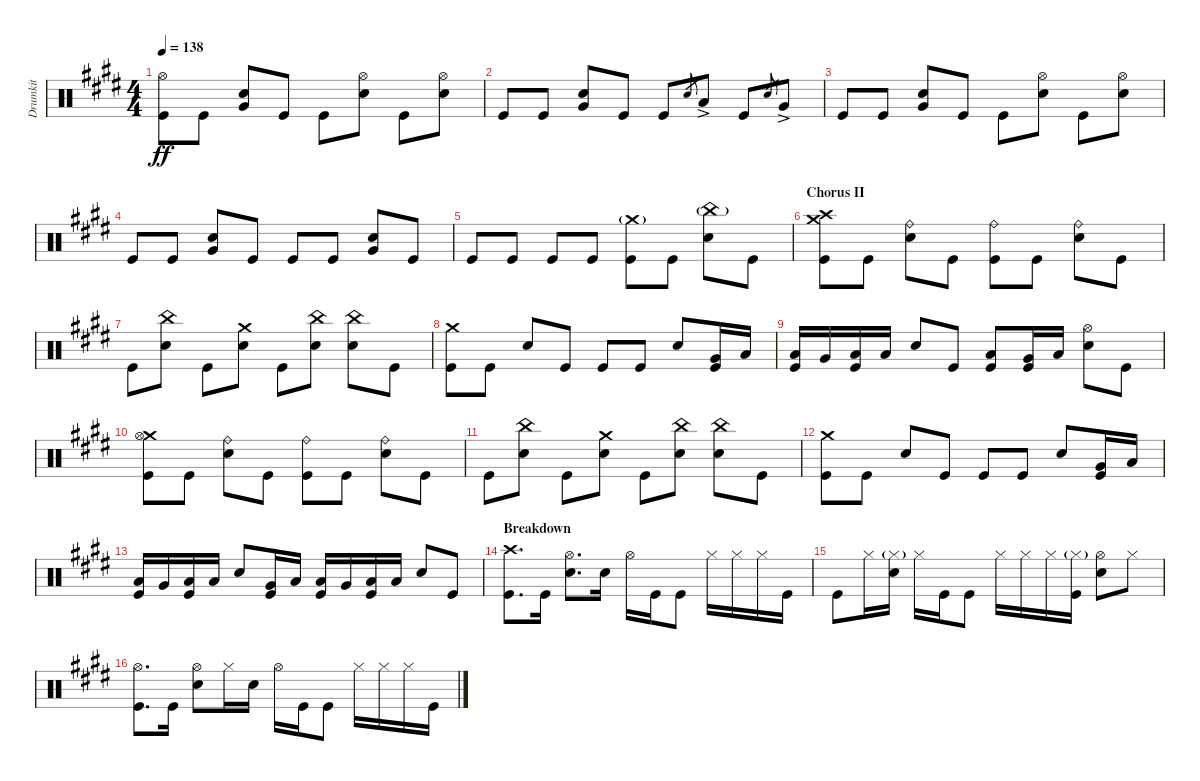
\track ("Drumkit" "Drumkit") {instrument percussion}
\staff {score}
\articulation defaults
\ts (4 4)
\tempo 138
\clef neutral
\ks c#minor
("Kick (hit)" "Hi-Hat (open)").8{dy ff} "Kick (hit)".8 ("Snare (hit) 2" "Very Low Tom (hit)").8 "Kick (hit)".8 "Kick (hit)".8 ("Snare (hit) 2" "Hi-Hat (open)").8 "Kick (hit)".8 ("Snare (hit) 2" "Hi-Hat (open)").8 |
"Kick (hit)".8 "Kick (hit)".8 ("Snare (hit) 2" "Very Low Tom (hit)").8 "Kick (hit)".8 "Kick (hit)".8 "Snare (hit)".8{gr} "Low Tom (hit)"{ac}.8 "Kick (hit)".8 "Snare (hit)".8{gr} "Very Low Tom (hit)"{ac}.8 |
"Kick (hit)".8 "Kick (hit)".8 ("Snare (hit) 2" "Very Low Tom (hit)").8 "Kick (hit)".8 "Kick (hit)".8 ("Snare (hit) 2" "Hi-Hat (open)").8 "Kick (hit)".8 ("Snare (hit) 2" "Hi-Hat (open)").8 |
"Kick (hit)".8 "Kick (hit)".8 ("Snare (hit) 2" "Very Low Tom (hit)").8 "Kick (hit)".8 "Kick (hit)".8 "Kick (hit)".8 ("Snare (hit) 2" "Very Low Tom (hit)").8 "Kick (hit)".8 |
"Kick (hit)".8 "Kick (hit)".8 "Kick (hit)".8 "Kick (hit)".8 ("Kick (hit)" "Crash medium (hit)"{g}).8 "Kick (hit)".8 ("Snare (hit) 2" "China (hit)"{g}).8 "Kick (hit)".8 |
\section ("" "Chorus II")
("Crash medium (hit)" "Crash high (hit)" "Kick (hit)").8 "Kick (hit)".8 ("Snare (hit) 2" "Ride (bell)").8 "Kick (hit)".8 ("Kick (hit)" "Ride (bell)").8 "Kick (hit)".8 ("Snare (hit) 2" "Ride (bell)").8 "Kick (hit)".8 |
"Kick (hit)".8 ("Snare (hit) 2" "China (hit)").8 "Kick (hit)".8 ("Snare (hit) 2" "Crash medium (hit)").8 "Kick (hit)".8 ("Snare (hit) 2" "China (hit)").8 ("Snare (hit) 2" "China (hit)").8 "Kick (hit)".8 |
("Kick (hit)" "Crash medium (hit)").8 "Kick (hit)".8 "Snare (hit) 2".8 "Kick (hit)".8 "Kick (hit)".8 "Kick (hit)".8 "Snare (hit) 2".8 ("Kick (hit)" "Very Low Tom (hit)").16 "Low Tom (hit)".16 |
("Kick (hit)" "Low Tom (hit)").16 "Very Low Tom (hit)".16 ("Kick (hit)" "Low Floor Tom (hit)").16 "Low Floor Tom (hit)".16 "Snare (hit) 2".8 "Kick (hit)".8 ("Kick (hit)" "Low Tom (hit)").8 ("Kick (hit)" "Very Low Tom (hit)").16 "Low Floor Tom (hit)".16 ("Snare (hit) 2" "Hi-Hat (open)").8 "Kick (hit)".8 |
("Crash medium (hit)" "Kick (hit)" "Hi-Hat (open)").8 "Kick (hit)".8 ("Snare (hit) 2" "Ride (bell)").8 "Kick (hit)".8 ("Kick (hit)" "Ride (bell)").8 "Kick (hit)".8 ("Snare (hit) 2" "Ride (bell)").8 "Kick (hit)".8 |
"Kick (hit)".8 ("Snare (hit) 2" "China (hit)").8 "Kick (hit)".8 ("Snare (hit) 2" "Crash medium (hit)").8 "Kick (hit)".8 ("Snare (hit) 2" "China (hit)").8 ("Snare (hit) 2" "China (hit)").8 "Kick (hit)".8 |
("Kick (hit)" "Crash medium (hit)").8 "Kick (hit)".8 "Snare (hit) 2".8 "Kick (hit)".8 "Kick (hit)".8 "Kick (hit)".8 "Snare (hit) 2".8 ("Kick (hit)" "Very Low Tom (hit)").16 "Low Tom (hit)".16 |
("Kick (hit)" "Low Tom (hit)").16 "Very Low Tom (hit)".16 ("Kick (hit)" "Low Floor Tom (hit)").16 "Low Floor Tom (hit)".16 "Snare (hit) 2".8 ("Kick (hit)" "Very Low Tom (hit)").16 "Low Tom (hit)".16 ("Kick (hit)" "Low Tom (hit)").16 "Very Low Tom (hit)".16 ("Kick (hit)" "Low Floor Tom (hit)").16 "Low Floor Tom (hit)".16 "Snare (hit) 2".8 "Kick (hit)".8 |
\section ("" "Breakdown")
("Kick (hit)" "Crash high (hit)").8{d} "Kick (hit)".16 ("Snare (hit) 2" "Hi-Hat (open)").8{d} "Snare (hit) 2".16 "Hi-Hat (open)".16 "Kick (hit)".16 "Kick (hit)".8 "Hi-Hat (closed)".16 "Hi-Hat (closed)".16 "Hi-Hat (closed)".16 "Kick (hit)".16 |
"Kick (hit)".8 "Hi-Hat (closed)".16 ("Snare (hit) 2" "Hi-Hat (closed)"{g}).16 "Hi-Hat (closed)".16 "Kick (hit)".16 "Kick (hit)".8 "Hi-Hat (closed)".16 "Hi-Hat (closed)".16 "Hi-Hat (closed)".16 ("Kick (hit)" "Hi-Hat (closed)"{g}).16 ("Snare (hit) 2" "Hi-Hat (open)").8 "Hi-Hat (closed)".8 |
("Kick (hit)" "Hi-Hat (open)").8{d} "Kick (hit)".16 ("Snare (hit) 2" "Hi-Hat (open)").8 "Hi-Hat (closed)".16 "Snare (hit) 2".16 "Hi-Hat (open)".16 "Kick (hit)".16 "Kick (hit)".8 "Hi-Hat (closed)".16 "Hi-Hat (closed)".16 "Hi-Hat (closed)".16 "Kick (hit)".16
